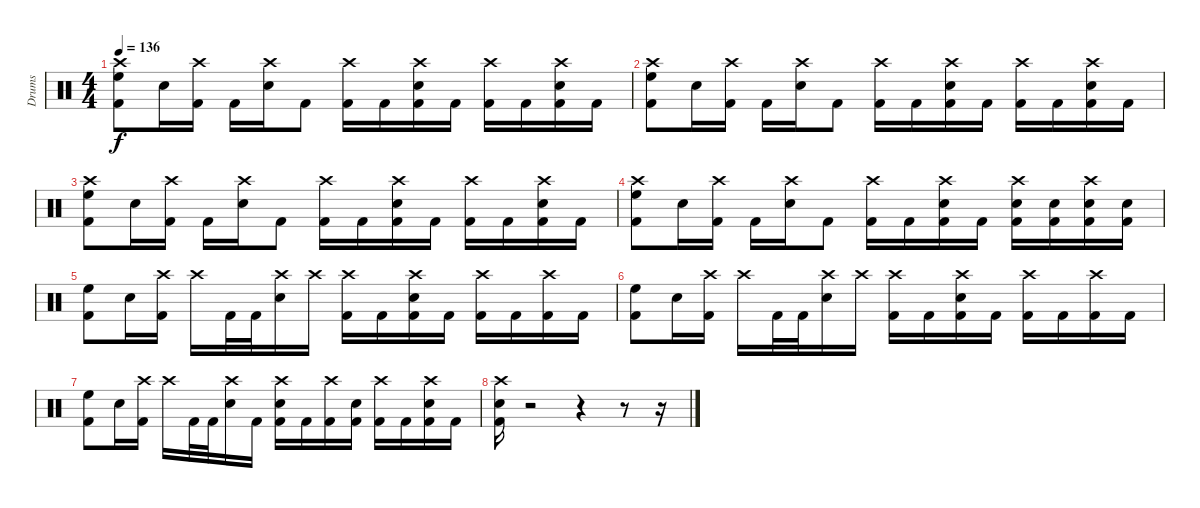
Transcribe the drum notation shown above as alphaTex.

\track ("Drums" "Drums") {instrument percussion}
\staff {score}
\articulation defaults
\ts (4 4)
\tempo 136
\clef neutral
\ks c
("Crash high (hit)" "High Floor Tom (hit)" "Kick (hit) 2").8{dy f} "Snare (hit) 2".16 ("Crash high (hit)" "Kick (hit) 2").16 "Kick (hit) 2".16 ("Crash high (hit)" "Snare (hit) 2").16 "Kick (hit) 2".8 ("Crash high (hit)" "Kick (hit) 2").16 "Kick (hit) 2".16 ("Crash high (hit)" "Snare (hit) 2" "Kick (hit) 2").16 "Kick (hit) 2".16 ("Crash high (hit)" "Kick (hit) 2").16 "Kick (hit) 2".16 ("Crash high (hit)" "Snare (hit) 2" "Kick (hit) 2").16 "Kick (hit) 2".16 |
("Crash high (hit)" "High Floor Tom (hit)" "Kick (hit) 2").8 "Snare (hit) 2".16 ("Crash high (hit)" "Kick (hit) 2").16 "Kick (hit) 2".16 ("Crash high (hit)" "Snare (hit) 2").16 "Kick (hit) 2".8 ("Crash high (hit)" "Kick (hit) 2").16 "Kick (hit) 2".16 ("Crash high (hit)" "Snare (hit) 2" "Kick (hit) 2").16 "Kick (hit) 2".16 ("Crash high (hit)" "Kick (hit) 2").16 "Kick (hit) 2".16 ("Crash high (hit)" "Snare (hit) 2" "Kick (hit) 2").16 "Kick (hit) 2".16 |
("Crash high (hit)" "High Floor Tom (hit)" "Kick (hit) 2").8 "Snare (hit) 2".16 ("Crash high (hit)" "Kick (hit) 2").16 "Kick (hit) 2".16 ("Crash high (hit)" "Snare (hit) 2").16 "Kick (hit) 2".8 ("Crash high (hit)" "Kick (hit) 2").16 "Kick (hit) 2".16 ("Crash high (hit)" "Snare (hit) 2" "Kick (hit) 2").16 "Kick (hit) 2".16 ("Crash high (hit)" "Kick (hit) 2").16 "Kick (hit) 2".16 ("Crash high (hit)" "Snare (hit) 2" "Kick (hit) 2").16 "Kick (hit) 2".16 |
("Crash high (hit)" "High Floor Tom (hit)" "Kick (hit) 2").8 "Snare (hit) 2".16 ("Crash high (hit)" "Kick (hit) 2").16 "Kick (hit) 2".16 ("Crash high (hit)" "Snare (hit) 2").16 "Kick (hit) 2".8 ("Crash high (hit)" "Kick (hit) 2").16 "Kick (hit) 2".16 ("Crash high (hit)" "Snare (hit) 2" "Kick (hit) 2").16 "Kick (hit) 2".16 ("Crash high (hit)" "Snare (hit) 2" "Kick (hit) 2").16 ("Snare (hit) 2" "Kick (hit) 2").16 ("Crash high (hit)" "Snare (hit) 2" "Kick (hit) 2").16 ("Snare (hit) 2" "Kick (hit) 2").16 |
("High Floor Tom (hit)" "Kick (hit) 2").8 "Snare (hit) 2".16 ("Crash high (hit)" "Kick (hit) 2").16 "Crash high (hit)"{x}.16 "Kick (hit) 2".32 "Kick (hit) 2".32 ("Crash high (hit)" "Snare (hit) 2").16 "Crash high (hit)".16 ("Crash high (hit)" "Kick (hit) 2").16 "Kick (hit) 2".16 ("Crash high (hit)" "Snare (hit) 2" "Kick (hit) 2").16 "Kick (hit) 2".16 ("Crash high (hit)" "Kick (hit) 2").16 "Kick (hit) 2".16 ("Crash high (hit)" "Kick (hit) 2").16 "Kick (hit) 2".16 |
("High Floor Tom (hit)" "Kick (hit) 2").8 "Snare (hit) 2".16 ("Crash high (hit)" "Kick (hit) 2").16 "Crash high (hit)"{x}.16 "Kick (hit) 2".32 "Kick (hit) 2".32 ("Crash high (hit)" "Snare (hit) 2").16 "Crash high (hit)".16 ("Crash high (hit)" "Kick (hit) 2").16 "Kick (hit) 2".16 ("Crash high (hit)" "Snare (hit) 2" "Kick (hit) 2").16 "Kick (hit) 2".16 ("Crash high (hit)" "Kick (hit) 2").16 "Kick (hit) 2".16 ("Crash high (hit)" "Kick (hit) 2").16 "Kick (hit) 2".16 |
("High Floor Tom (hit)" "Kick (hit) 2").8 "Snare (hit) 2".16 ("Crash high (hit)" "Kick (hit) 2").16 "Crash high (hit)"{x}.16 "Kick (hit) 2".32 "Kick (hit) 2".32 ("Crash high (hit)" "Snare (hit) 2").16 "Kick (hit) 2".16 ("Crash high (hit)" "Snare (hit) 2" "Kick (hit) 2").16 "Kick (hit) 2".16 ("Crash high (hit)" "Kick (hit) 2").16 ("Snare (hit) 2" "Kick (hit) 2").16 ("Crash high (hit)" "Kick (hit) 2").16 "Kick (hit) 2".16 ("Crash high (hit)" "Snare (hit) 2" "Kick (hit) 2").16 "Kick (hit) 2".16 |
("Crash high (hit)" "Snare (hit) 2" "Kick (hit) 2").16 r.2 r.4 r.8 r.16
